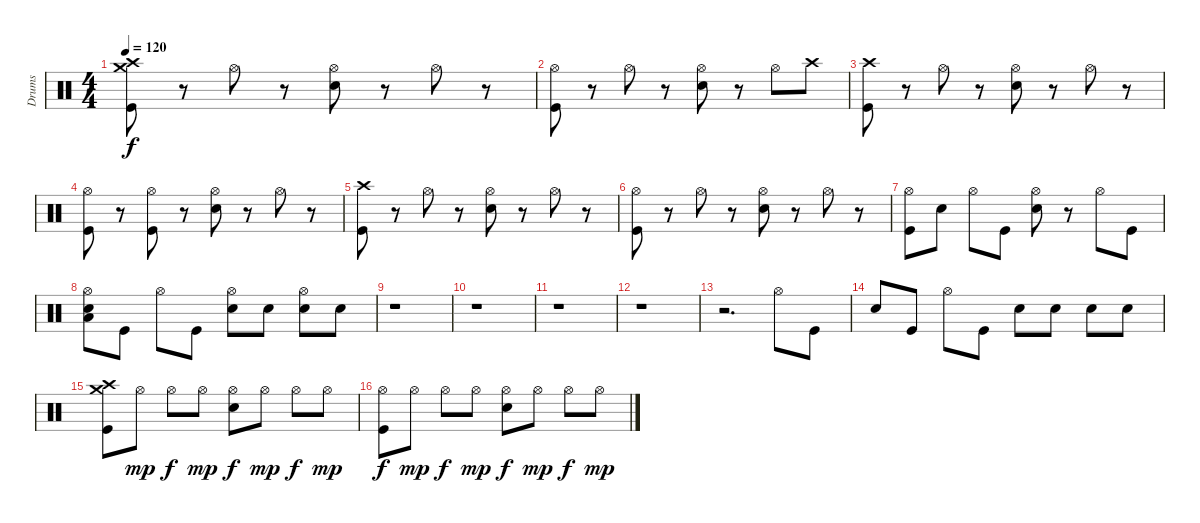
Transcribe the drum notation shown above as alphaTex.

\track ("Drums" "Drums") {instrument percussion}
\staff {score}
\articulation defaults
\ts (4 4)
\tempo 120
\clef neutral
\ks c
("Kick (hit)" "Crash high (hit)" "Crash medium (hit)").8{dy f} r.8 "Hi-Hat (open)".8 r.8 ("Snare (hit) 2" "Hi-Hat (open)").8 r.8 "Hi-Hat (open)".8 r.8 |
("Kick (hit)" "Hi-Hat (open)").8 r.8 "Hi-Hat (open)".8 r.8 ("Snare (hit) 2" "Hi-Hat (open)").8 r.8 "Hi-Hat (open)".8 "Crash high (hit)".8 |
("Kick (hit)" "Crash high (hit)").8 r.8 "Hi-Hat (open)".8 r.8 ("Snare (hit) 2" "Hi-Hat (open)").8 r.8 "Hi-Hat (open)".8 r.8 |
("Kick (hit)" "Hi-Hat (open)").8 r.8 ("Hi-Hat (open)" "Kick (hit)").8 r.8 ("Snare (hit) 2" "Hi-Hat (open)").8 r.8 "Hi-Hat (open)".8 r.8 |
("Kick (hit)" "Crash high (hit)").8 r.8 "Hi-Hat (open)".8 r.8 ("Snare (hit) 2" "Hi-Hat (open)").8 r.8 "Hi-Hat (open)".8 r.8 |
("Kick (hit)" "Hi-Hat (open)").8 r.8 "Hi-Hat (open)".8 r.8 ("Snare (hit) 2" "Hi-Hat (open)").8 r.8 "Hi-Hat (open)".8 r.8 |
("Kick (hit)" "Hi-Hat (open)").8 "Snare (hit) 2".8 "Hi-Hat (open)".8 "Kick (hit)".8 ("Snare (hit) 2" "Hi-Hat (open)").8 r.8 "Hi-Hat (open)".8 "Kick (hit)".8 |
("Hi-Hat (open)" "Snare (hit) 2" "Low Tom (hit)").8 "Kick (hit)".8 "Hi-Hat (open)".8 "Kick (hit)".8 ("Hi-Hat (open)" "Snare (hit) 2").8 "Snare (hit) 2".8 ("Hi-Hat (open)" "Snare (hit) 2").8 "Snare (hit) 2".8 |
r.1 |
r.1 |
r.1 |
r.1 |
r.2{d} "Hi-Hat (open)".8 "Kick (hit)".8 |
"Snare (hit) 2".8 "Kick (hit)".8 "Hi-Hat (open)".8 "Kick (hit)".8 "Snare (hit) 2".8 "Snare (hit) 2".8 "Snare (hit) 2".8 "Snare (hit) 2".8 |
("Kick (hit)" "Crash high (hit)" "Crash medium (hit)").8 "Hi-Hat (open)".8{dy mp} "Hi-Hat (open)".8{dy f} "Hi-Hat (open)".8{dy mp} ("Snare (hit) 2" "Hi-Hat (open)").8{dy f} "Hi-Hat (open)".8{dy mp} "Hi-Hat (open)".8{dy f} "Hi-Hat (open)".8{dy mp} |
("Kick (hit)" "Hi-Hat (open)").8{dy f} "Hi-Hat (open)".8{dy mp} "Hi-Hat (open)".8{dy f} "Hi-Hat (open)".8{dy mp} ("Snare (hit) 2" "Hi-Hat (open)").8{dy f} "Hi-Hat (open)".8{dy mp} "Hi-Hat (open)".8{dy f} "Hi-Hat (open)".8{dy mp}
